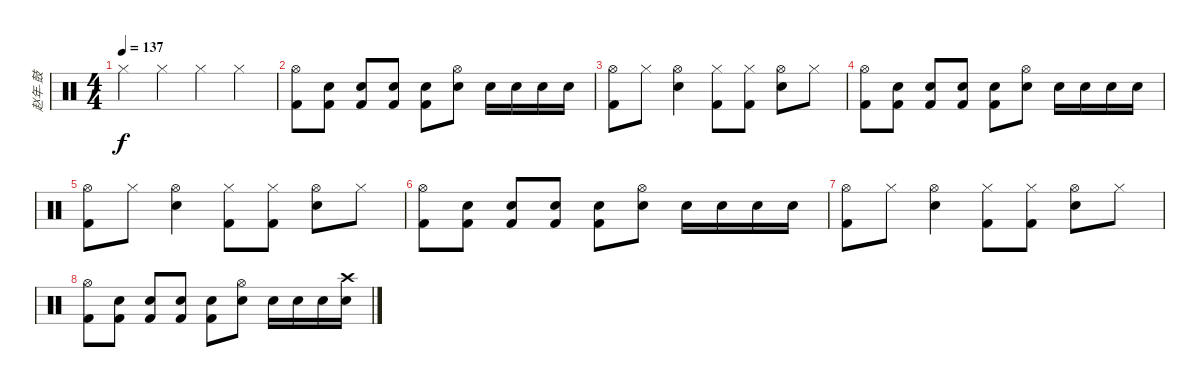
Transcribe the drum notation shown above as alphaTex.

\track ("赵年-鼓" "赵年-鼓") {instrument percussion}
\staff {score}
\articulation defaults
\ts (4 4)
\tempo 137
\clef neutral
\ks c "Hi-Hat (closed)".4{dy f} "Hi-Hat (closed)".4 "Hi-Hat (closed)".4 "Hi-Hat (closed)".4
|
("Hi-Hat (open)" "Kick (hit) 2").8 ("Electric Snare (hit)" "Kick (hit) 2").8 ("Electric Snare (hit)" "Kick (hit) 2").8 ("Electric Snare (hit)" "Kick (hit) 2").8 ("Electric Snare (hit)" "Kick (hit) 2").8 ("Hi-Hat (open)" "Electric Snare (hit)").8 "Electric Snare (hit)".16 "Electric Snare (hit)".16 "Electric Snare (hit)".16 "Electric Snare (hit)".16 |
("Hi-Hat (open)" "Kick (hit) 2").8 "Hi-Hat (closed)".8 ("Electric Snare (hit)" "Hi-Hat (open)").4 ("Hi-Hat (closed)" "Kick (hit) 2").8 ("Hi-Hat (closed)" "Kick (hit) 2").8 ("Hi-Hat (open)" "Electric Snare (hit)").8 "Hi-Hat (closed)".8 |
("Hi-Hat (open)" "Kick (hit) 2").8 ("Electric Snare (hit)" "Kick (hit) 2").8 ("Electric Snare (hit)" "Kick (hit) 2").8 ("Electric Snare (hit)" "Kick (hit) 2").8 ("Electric Snare (hit)" "Kick (hit) 2").8 ("Hi-Hat (open)" "Electric Snare (hit)").8 "Electric Snare (hit)".16 "Electric Snare (hit)".16 "Electric Snare (hit)".16 "Electric Snare (hit)".16 |
("Hi-Hat (open)" "Kick (hit) 2").8 "Hi-Hat (closed)".8 ("Electric Snare (hit)" "Hi-Hat (open)").4 ("Hi-Hat (closed)" "Kick (hit) 2").8 ("Hi-Hat (closed)" "Kick (hit) 2").8 ("Hi-Hat (open)" "Electric Snare (hit)").8 "Hi-Hat (closed)".8 |
("Hi-Hat (open)" "Kick (hit) 2").8 ("Electric Snare (hit)" "Kick (hit) 2").8 ("Electric Snare (hit)" "Kick (hit) 2").8 ("Electric Snare (hit)" "Kick (hit) 2").8 ("Electric Snare (hit)" "Kick (hit) 2").8 ("Hi-Hat (open)" "Electric Snare (hit)").8 "Electric Snare (hit)".16 "Electric Snare (hit)".16 "Electric Snare (hit)".16 "Electric Snare (hit)".16 |
("Hi-Hat (open)" "Kick (hit) 2").8 "Hi-Hat (closed)".8 ("Electric Snare (hit)" "Hi-Hat (open)").4 ("Hi-Hat (closed)" "Kick (hit) 2").8 ("Hi-Hat (closed)" "Kick (hit) 2").8 ("Hi-Hat (open)" "Electric Snare (hit)").8 "Hi-Hat (closed)".8 |
("Hi-Hat (open)" "Kick (hit) 2").8 ("Electric Snare (hit)" "Kick (hit) 2").8 ("Electric Snare (hit)" "Kick (hit) 2").8 ("Electric Snare (hit)" "Kick (hit) 2").8 ("Electric Snare (hit)" "Kick (hit) 2").8 ("Hi-Hat (open)" "Electric Snare (hit)").8 "Electric Snare (hit)".16 "Electric Snare (hit)".16 "Electric Snare (hit)".16 ("Crash high (hit)" "Electric Snare (hit)").16
